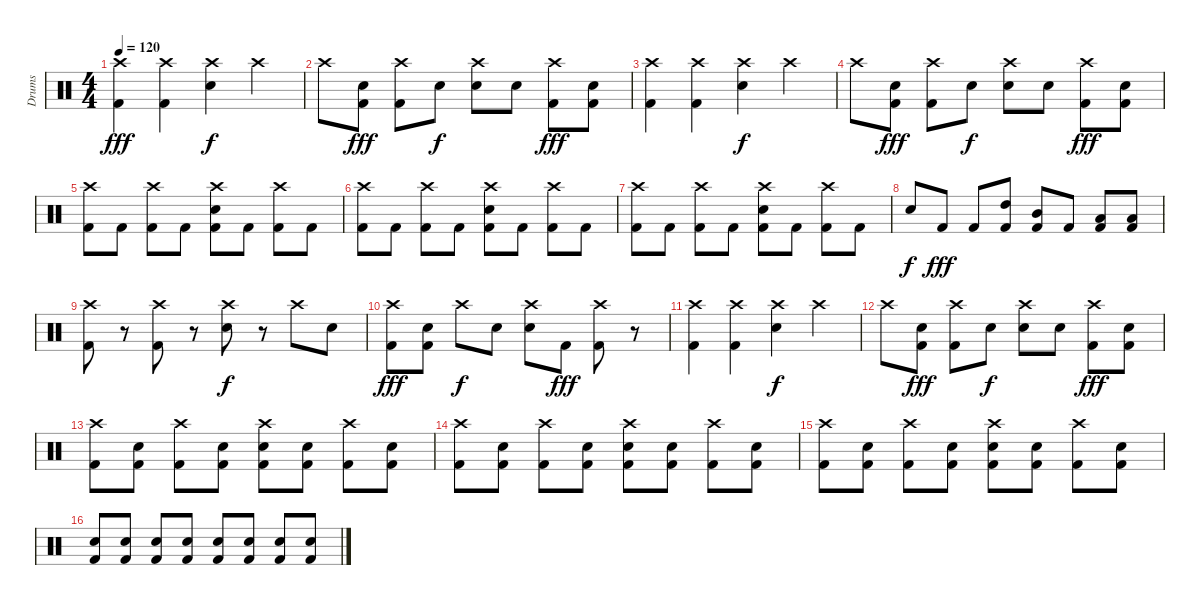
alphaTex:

\track ("Drums" "Drums") {instrument percussion}
\staff {score}
\articulation defaults
\ts (4 4)
\tempo 120
\clef neutral
\ks c
("Crash high (hit)" "Kick (hit) 2").4{dy fff} ("Crash high (hit)" "Kick (hit) 2").4 ("Crash high (hit)" "Electric Snare (hit)").4{dy f} "Crash high (hit)".4 |
"Crash high (hit)".8 ("Snare (hit)" "Kick (hit) 2").8{dy fff} ("Crash high (hit)" "Kick (hit) 2").8 "Snare (hit)".8{dy f} ("Crash high (hit)" "Electric Snare (hit)").8 "Snare (hit)".8 ("Crash high (hit)" "Kick (hit) 2").8{dy fff} ("Snare (hit)" "Kick (hit) 2").8 |
("Crash high (hit)" "Kick (hit) 2").4 ("Crash high (hit)" "Kick (hit) 2").4 ("Crash high (hit)" "Electric Snare (hit)").4{dy f} "Crash high (hit)".4 |
"Crash high (hit)".8 ("Snare (hit)" "Kick (hit) 2").8{dy fff} ("Crash high (hit)" "Kick (hit) 2").8 "Snare (hit)".8{dy f} ("Crash high (hit)" "Electric Snare (hit)").8 "Snare (hit)".8 ("Crash high (hit)" "Kick (hit) 2").8{dy fff} ("Snare (hit)" "Kick (hit) 2").8 |
("Crash high (hit)" "Kick (hit) 2").8 "Kick (hit) 2".8 ("Crash high (hit)" "Kick (hit) 2").8 "Kick (hit) 2".8 ("Crash high (hit)" "Electric Snare (hit)" "Kick (hit) 2").8 "Kick (hit) 2".8 ("Crash high (hit)" "Kick (hit) 2").8 "Kick (hit) 2".8 |
("Crash high (hit)" "Kick (hit) 2").8 "Kick (hit) 2".8 ("Crash high (hit)" "Kick (hit) 2").8 "Kick (hit) 2".8 ("Crash high (hit)" "Electric Snare (hit)" "Kick (hit) 2").8 "Kick (hit) 2".8 ("Crash high (hit)" "Kick (hit) 2").8 "Kick (hit) 2".8 |
("Crash high (hit)" "Kick (hit) 2").8 "Kick (hit) 2".8 ("Crash high (hit)" "Kick (hit) 2").8 "Kick (hit) 2".8 ("Crash high (hit)" "Electric Snare (hit)" "Kick (hit) 2").8 "Kick (hit) 2".8 ("Crash high (hit)" "Kick (hit) 2").8 "Kick (hit) 2".8 |
"Electric Snare (hit)".8{dy f} "Kick (hit) 2".8{dy fff} "Kick (hit) 2".8 ("High Tom (hit)" "Kick (hit) 2").8 ("Mid Tom (hit)" "Kick (hit) 2").8 "Kick (hit) 2".8 ("Low Tom (hit)" "Kick (hit) 2").8 ("Low Floor Tom (hit)" "Kick (hit) 2").8 |
("Crash high (hit)" "Kick (hit) 2").8 r.8 ("Crash high (hit)" "Kick (hit) 2").8 r.8 ("Crash high (hit)" "Electric Snare (hit)").8{dy f} r.8 "Crash high (hit)".8 "Snare (hit)".8 |
("Crash high (hit)" "Kick (hit) 2").8{dy fff} ("Snare (hit)" "Kick (hit) 2").8 "Crash high (hit)".8{dy f} "Snare (hit)".8 ("Crash high (hit)" "Electric Snare (hit)").8 "Kick (hit) 2".8{dy fff} ("Crash high (hit)" "Kick (hit) 2").8 r.8 |
("Crash high (hit)" "Kick (hit) 2").4 ("Crash high (hit)" "Kick (hit) 2").4 ("Crash high (hit)" "Electric Snare (hit)").4{dy f} "Crash high (hit)".4 |
"Crash high (hit)".8 ("Snare (hit)" "Kick (hit) 2").8{dy fff} ("Crash high (hit)" "Kick (hit) 2").8 "Snare (hit)".8{dy f} ("Crash high (hit)" "Electric Snare (hit)").8 "Snare (hit)".8 ("Crash high (hit)" "Kick (hit) 2").8{dy fff} ("Snare (hit)" "Kick (hit) 2").8 |
("Crash high (hit)" "Kick (hit) 2").8 ("Snare (hit)" "Kick (hit) 2").8 ("Crash high (hit)" "Kick (hit) 2").8 ("Snare (hit)" "Kick (hit) 2").8 ("Crash high (hit)" "Electric Snare (hit)" "Kick (hit) 2").8 ("Snare (hit)" "Kick (hit) 2").8 ("Crash high (hit)" "Kick (hit) 2").8 ("Snare (hit)" "Kick (hit) 2").8 |
("Crash high (hit)" "Kick (hit) 2").8 ("Snare (hit)" "Kick (hit) 2").8 ("Crash high (hit)" "Kick (hit) 2").8 ("Snare (hit)" "Kick (hit) 2").8 ("Crash high (hit)" "Electric Snare (hit)" "Kick (hit) 2").8 ("Snare (hit)" "Kick (hit) 2").8 ("Crash high (hit)" "Kick (hit) 2").8 ("Snare (hit)" "Kick (hit) 2").8 |
("Crash high (hit)" "Kick (hit) 2").8 ("Snare (hit)" "Kick (hit) 2").8 ("Crash high (hit)" "Kick (hit) 2").8 ("Snare (hit)" "Kick (hit) 2").8 ("Crash high (hit)" "Electric Snare (hit)" "Kick (hit) 2").8 ("Snare (hit)" "Kick (hit) 2").8 ("Crash high (hit)" "Kick (hit) 2").8 ("Snare (hit)" "Kick (hit) 2").8 |
("Electric Snare (hit)" "Kick (hit) 2").8 ("Electric Snare (hit)" "Kick (hit) 2").8 ("Electric Snare (hit)" "Kick (hit) 2").8 ("Electric Snare (hit)" "Kick (hit) 2").8 ("Electric Snare (hit)" "Kick (hit) 2").8 ("Electric Snare (hit)" "Kick (hit) 2").8 ("Electric Snare (hit)" "Kick (hit) 2").8 ("Electric Snare (hit)" "Kick (hit) 2").8
